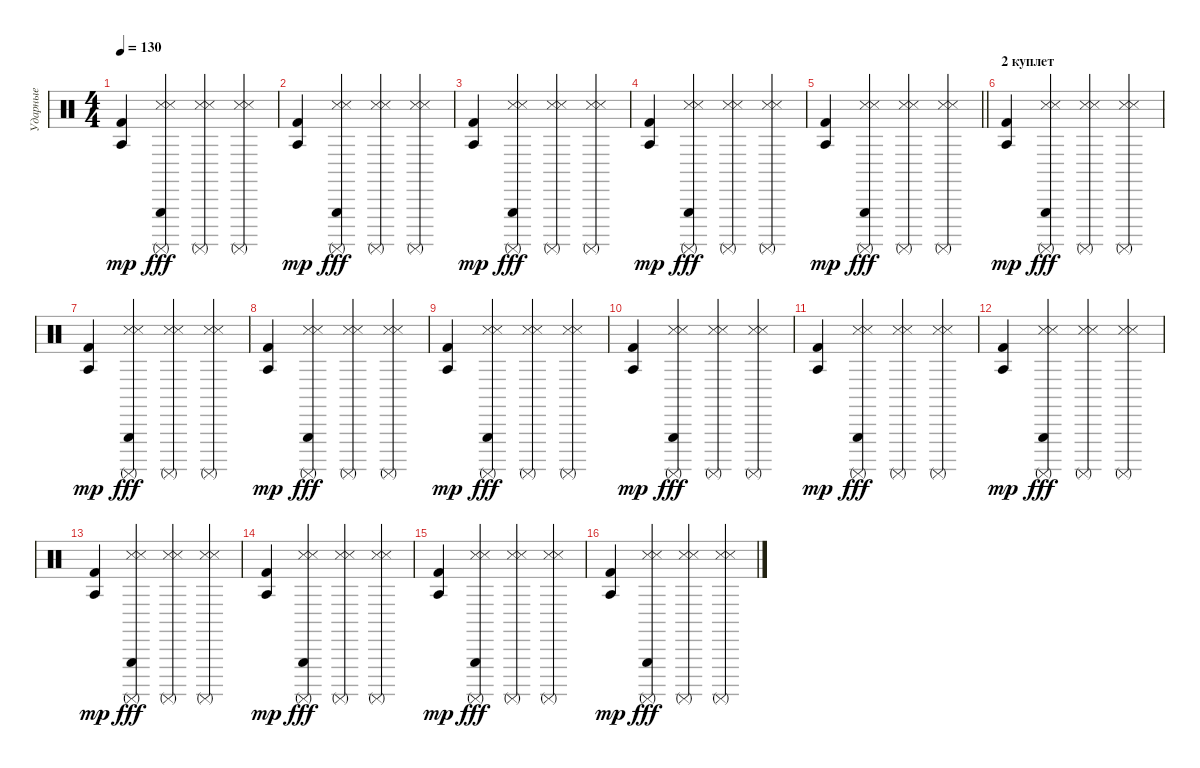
\track ("Ударные" "Ударные") {instrument percussion}
\staff {score}
\articulation defaults
\ts (4 4)
\tempo 130
\clef neutral
\ks c
("Kick (hit) 2" "Agogo tow (hit)").4{dy mp} ("Metronome (hit)" "Snare (side stick) 3" "Surdo (mute)" "Triangle (hit)").4{dy fff} ("Metronome (hit)" "Snare (side stick) 3" "Surdo (mute)").4 ("Metronome (hit)" "Snare (side stick) 3" "Surdo (mute)").4 |
("Kick (hit) 2" "Agogo tow (hit)").4{dy mp} ("Metronome (hit)" "Snare (side stick) 3" "Surdo (mute)" "Triangle (hit)").4{dy fff} ("Metronome (hit)" "Snare (side stick) 3" "Surdo (mute)").4 ("Metronome (hit)" "Snare (side stick) 3" "Surdo (mute)").4 |
("Kick (hit) 2" "Agogo tow (hit)").4{dy mp} ("Metronome (hit)" "Snare (side stick) 3" "Surdo (mute)" "Triangle (hit)").4{dy fff} ("Metronome (hit)" "Snare (side stick) 3" "Surdo (mute)").4 ("Metronome (hit)" "Snare (side stick) 3" "Surdo (mute)").4 |
("Kick (hit) 2" "Agogo tow (hit)").4{dy mp} ("Metronome (hit)" "Snare (side stick) 3" "Surdo (mute)" "Triangle (hit)").4{dy fff} ("Metronome (hit)" "Snare (side stick) 3" "Surdo (mute)").4 ("Metronome (hit)" "Snare (side stick) 3" "Surdo (mute)").4 |
\barLineRight lightlight
("Kick (hit) 2" "Agogo tow (hit)").4{dy mp} ("Metronome (hit)" "Snare (side stick) 3" "Surdo (mute)" "Triangle (hit)").4{dy fff} ("Metronome (hit)" "Snare (side stick) 3" "Surdo (mute)").4 ("Metronome (hit)" "Snare (side stick) 3" "Surdo (mute)").4 |
\section ("" "2 куплет")
("Kick (hit) 2" "Agogo tow (hit)").4{dy mp} ("Metronome (hit)" "Snare (side stick) 3" "Surdo (mute)" "Triangle (hit)").4{dy fff} ("Metronome (hit)" "Snare (side stick) 3" "Surdo (mute)").4 ("Metronome (hit)" "Snare (side stick) 3" "Surdo (mute)").4 |
("Kick (hit) 2" "Agogo tow (hit)").4{dy mp} ("Metronome (hit)" "Snare (side stick) 3" "Surdo (mute)" "Triangle (hit)").4{dy fff} ("Metronome (hit)" "Snare (side stick) 3" "Surdo (mute)").4 ("Metronome (hit)" "Snare (side stick) 3" "Surdo (mute)").4 |
("Kick (hit) 2" "Agogo tow (hit)").4{dy mp} ("Metronome (hit)" "Snare (side stick) 3" "Surdo (mute)" "Triangle (hit)").4{dy fff} ("Metronome (hit)" "Snare (side stick) 3" "Surdo (mute)").4 ("Metronome (hit)" "Snare (side stick) 3" "Surdo (mute)").4 |
("Kick (hit) 2" "Agogo tow (hit)").4{dy mp} ("Metronome (hit)" "Snare (side stick) 3" "Surdo (mute)" "Triangle (hit)").4{dy fff} ("Metronome (hit)" "Snare (side stick) 3" "Surdo (mute)").4 ("Metronome (hit)" "Snare (side stick) 3" "Surdo (mute)").4 |
("Kick (hit) 2" "Agogo tow (hit)").4{dy mp} ("Metronome (hit)" "Snare (side stick) 3" "Surdo (mute)" "Triangle (hit)").4{dy fff} ("Metronome (hit)" "Snare (side stick) 3" "Surdo (mute)").4 ("Metronome (hit)" "Snare (side stick) 3" "Surdo (mute)").4 |
("Kick (hit) 2" "Agogo tow (hit)").4{dy mp} ("Metronome (hit)" "Snare (side stick) 3" "Surdo (mute)" "Triangle (hit)").4{dy fff} ("Metronome (hit)" "Snare (side stick) 3" "Surdo (mute)").4 ("Metronome (hit)" "Snare (side stick) 3" "Surdo (mute)").4 |
("Kick (hit) 2" "Agogo tow (hit)").4{dy mp} ("Metronome (hit)" "Snare (side stick) 3" "Surdo (mute)" "Triangle (hit)").4{dy fff} ("Metronome (hit)" "Snare (side stick) 3" "Surdo (mute)").4 ("Metronome (hit)" "Snare (side stick) 3" "Surdo (mute)").4 |
("Kick (hit) 2" "Agogo tow (hit)").4{dy mp} ("Metronome (hit)" "Snare (side stick) 3" "Surdo (mute)" "Triangle (hit)").4{dy fff} ("Metronome (hit)" "Snare (side stick) 3" "Surdo (mute)").4 ("Metronome (hit)" "Snare (side stick) 3" "Surdo (mute)").4 |
("Kick (hit) 2" "Agogo tow (hit)").4{dy mp} ("Metronome (hit)" "Snare (side stick) 3" "Surdo (mute)" "Triangle (hit)").4{dy fff} ("Metronome (hit)" "Snare (side stick) 3" "Surdo (mute)").4 ("Metronome (hit)" "Snare (side stick) 3" "Surdo (mute)").4 |
("Kick (hit) 2" "Agogo tow (hit)").4{dy mp} ("Metronome (hit)" "Snare (side stick) 3" "Surdo (mute)" "Triangle (hit)").4{dy fff} ("Metronome (hit)" "Snare (side stick) 3" "Surdo (mute)").4 ("Metronome (hit)" "Snare (side stick) 3" "Surdo (mute)").4 |
("Kick (hit) 2" "Agogo tow (hit)").4{dy mp} ("Metronome (hit)" "Snare (side stick) 3" "Surdo (mute)" "Triangle (hit)").4{dy fff} ("Metronome (hit)" "Snare (side stick) 3" "Surdo (mute)").4 ("Metronome (hit)" "Snare (side stick) 3" "Surdo (mute)").4
